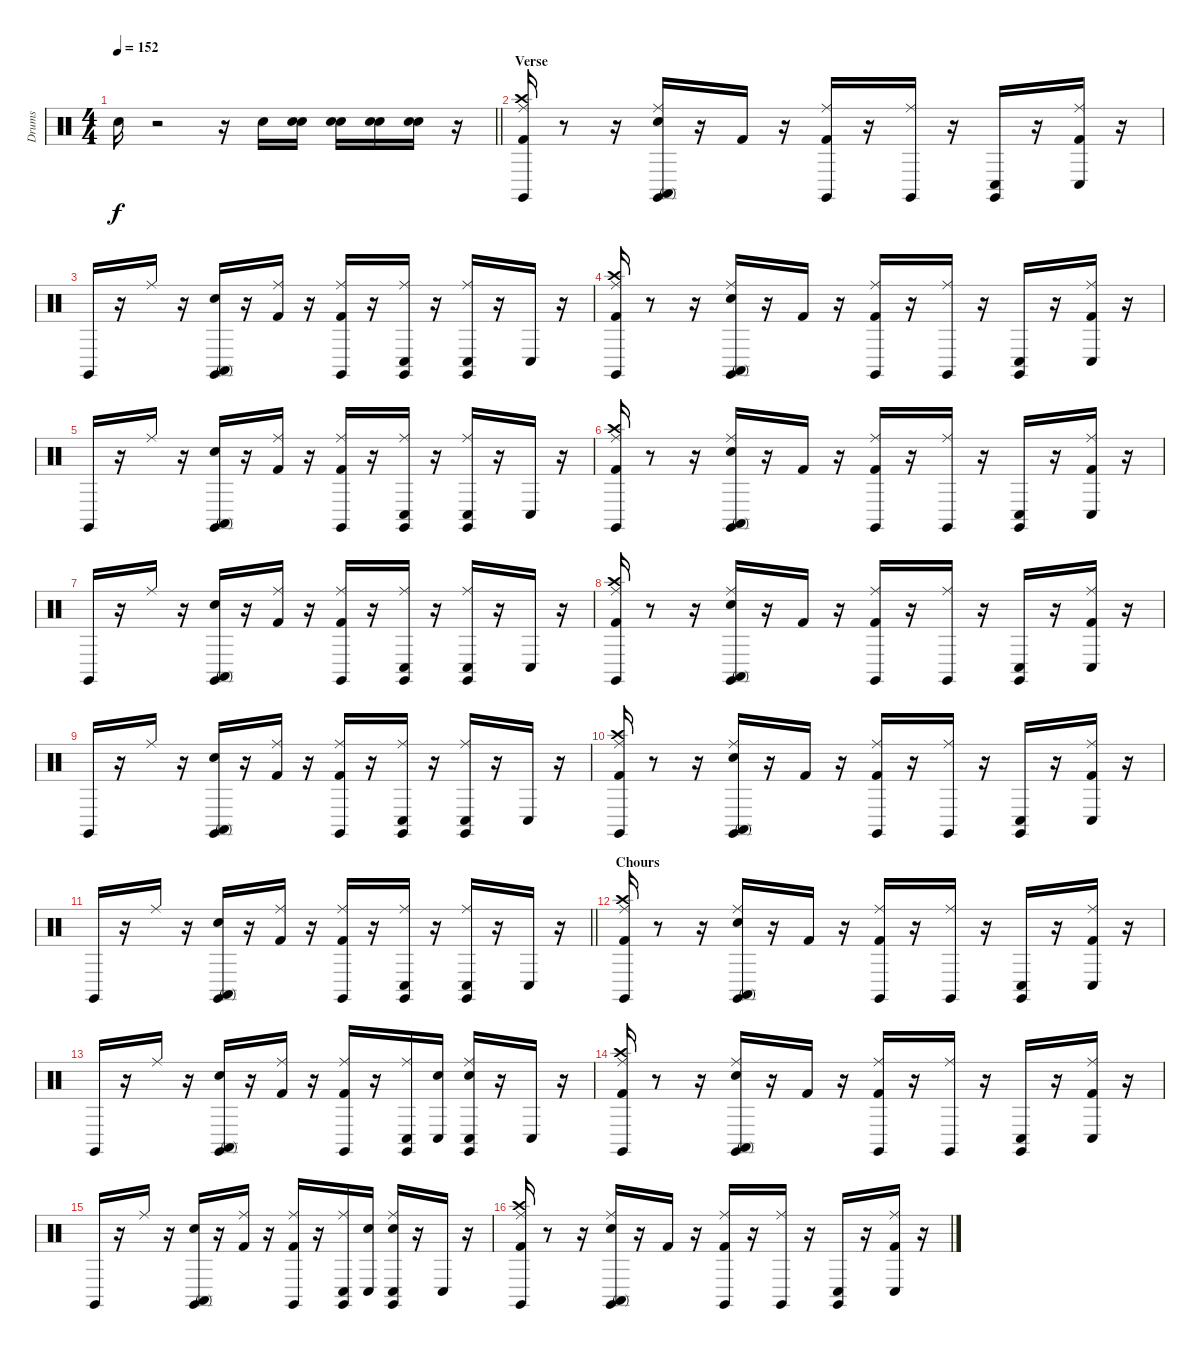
\track ("Drums" "Drums") {instrument percussion}
\staff {score}
\articulation defaults
\ts (4 4)
\tempo 152
\clef neutral
\barLineRight lightlight
\ks c "Snare (hit) 2".16{dy f volume 13}
r.2 r.16 "Snare (hit) 2".16 ("Snare (hit)" "Snare (hit) 2").16 ("Snare (hit)" "Snare (hit) 2").16 ("Snare (hit)" "Snare (hit) 2").16 ("Snare (hit)" "Snare (hit) 2").16 r.16 |
\section ("" "Verse")
("Kick (hit) 2" "Crash high (hit)" "Ride (middle)" "Claves (hit)").16 r.8 r.16 ("Snare (hit) 2" "Ride (middle)" "Conga high (mute)" "Claves (hit)").16 r.16 "Kick (hit) 2".16 r.16 ("Kick (hit) 2" "Ride (middle)" "Claves (hit)").16 r.16 ("Ride (middle)" "Claves (hit)").16 r.16 ("Conga low (hit)" "Claves (hit)").16 r.16 ("Kick (hit) 2" "Ride (middle)" "Conga low (hit)").16 r.16 |
"Claves (hit)".16 r.16 "Ride (middle)".16 r.16 ("Snare (hit) 2" "Conga high (mute)" "Claves (hit)").16 r.16 ("Kick (hit) 2" "Ride (middle)").16 r.16 ("Kick (hit) 2" "Ride (middle)" "Claves (hit)").16 r.16 ("Ride (middle)" "Conga low (hit)" "Claves (hit)").16 r.16 ("Ride (middle)" "Conga low (hit)" "Claves (hit)").16 r.16 "Conga low (hit)".16 r.16 |
("Kick (hit) 2" "Crash high (hit)" "Ride (middle)" "Claves (hit)").16 r.8 r.16 ("Snare (hit) 2" "Ride (middle)" "Conga high (mute)" "Claves (hit)").16 r.16 "Kick (hit) 2".16 r.16 ("Kick (hit) 2" "Ride (middle)" "Claves (hit)").16 r.16 ("Ride (middle)" "Claves (hit)").16 r.16 ("Conga low (hit)" "Claves (hit)").16 r.16 ("Kick (hit) 2" "Ride (middle)" "Conga low (hit)").16 r.16 |
"Claves (hit)".16 r.16 "Ride (middle)".16 r.16 ("Snare (hit) 2" "Conga high (mute)" "Claves (hit)").16 r.16 ("Kick (hit) 2" "Ride (middle)").16 r.16 ("Kick (hit) 2" "Ride (middle)" "Claves (hit)").16 r.16 ("Ride (middle)" "Conga low (hit)" "Claves (hit)").16 r.16 ("Ride (middle)" "Conga low (hit)" "Claves (hit)").16 r.16 "Conga low (hit)".16 r.16 |
("Kick (hit) 2" "Crash high (hit)" "Ride (middle)" "Claves (hit)").16 r.8 r.16 ("Snare (hit) 2" "Ride (middle)" "Conga high (mute)" "Claves (hit)").16 r.16 "Kick (hit) 2".16 r.16 ("Kick (hit) 2" "Ride (middle)" "Claves (hit)").16 r.16 ("Ride (middle)" "Claves (hit)").16 r.16 ("Conga low (hit)" "Claves (hit)").16 r.16 ("Kick (hit) 2" "Ride (middle)" "Conga low (hit)").16 r.16 |
"Claves (hit)".16 r.16 "Ride (middle)".16 r.16 ("Snare (hit) 2" "Conga high (mute)" "Claves (hit)").16 r.16 ("Kick (hit) 2" "Ride (middle)").16 r.16 ("Kick (hit) 2" "Ride (middle)" "Claves (hit)").16 r.16 ("Ride (middle)" "Conga low (hit)" "Claves (hit)").16 r.16 ("Ride (middle)" "Conga low (hit)" "Claves (hit)").16 r.16 "Conga low (hit)".16 r.16 |
("Kick (hit) 2" "Crash high (hit)" "Ride (middle)" "Claves (hit)").16 r.8 r.16 ("Snare (hit) 2" "Ride (middle)" "Conga high (mute)" "Claves (hit)").16 r.16 "Kick (hit) 2".16 r.16 ("Kick (hit) 2" "Ride (middle)" "Claves (hit)").16 r.16 ("Ride (middle)" "Claves (hit)").16 r.16 ("Conga low (hit)" "Claves (hit)").16 r.16 ("Kick (hit) 2" "Ride (middle)" "Conga low (hit)").16 r.16 |
"Claves (hit)".16 r.16 "Ride (middle)".16 r.16 ("Snare (hit) 2" "Conga high (mute)" "Claves (hit)").16 r.16 ("Kick (hit) 2" "Ride (middle)").16 r.16 ("Kick (hit) 2" "Ride (middle)" "Claves (hit)").16 r.16 ("Ride (middle)" "Conga low (hit)" "Claves (hit)").16 r.16 ("Ride (middle)" "Conga low (hit)" "Claves (hit)").16 r.16 "Conga low (hit)".16 r.16 |
("Kick (hit) 2" "Crash high (hit)" "Ride (middle)" "Claves (hit)").16 r.8 r.16 ("Snare (hit) 2" "Ride (middle)" "Conga high (mute)" "Claves (hit)").16 r.16 "Kick (hit) 2".16 r.16 ("Kick (hit) 2" "Ride (middle)" "Claves (hit)").16 r.16 ("Ride (middle)" "Claves (hit)").16 r.16 ("Conga low (hit)" "Claves (hit)").16 r.16 ("Kick (hit) 2" "Ride (middle)" "Conga low (hit)").16 r.16 |
\barLineRight lightlight "Claves (hit)".16
r.16 "Ride (middle)".16 r.16 ("Snare (hit) 2" "Conga high (mute)" "Claves (hit)").16 r.16 ("Kick (hit) 2" "Ride (middle)").16 r.16 ("Kick (hit) 2" "Ride (middle)" "Claves (hit)").16 r.16 ("Ride (middle)" "Conga low (hit)" "Claves (hit)").16 r.16 ("Ride (middle)" "Conga low (hit)" "Claves (hit)").16 r.16 "Conga low (hit)".16 r.16 |
\section ("" "Chours")
("Kick (hit) 2" "Crash high (hit)" "Ride (middle)" "Claves (hit)").16 r.8 r.16 ("Snare (hit) 2" "Ride (middle)" "Conga high (mute)" "Claves (hit)").16 r.16 "Kick (hit) 2".16 r.16 ("Kick (hit) 2" "Ride (middle)" "Claves (hit)").16 r.16 ("Ride (middle)" "Claves (hit)").16 r.16 ("Conga low (hit)" "Claves (hit)").16 r.16 ("Kick (hit) 2" "Ride (middle)" "Conga low (hit)").16 r.16 |
"Claves (hit)".16 r.16 "Ride (middle)".16 r.16 ("Snare (hit) 2" "Conga high (mute)" "Claves (hit)").16 r.16 ("Kick (hit) 2" "Ride (middle)").16 r.16 ("Kick (hit) 2" "Ride (middle)" "Claves (hit)").16 r.16 ("Ride (middle)" "Conga low (hit)" "Claves (hit)").16 ("Snare (hit)" "Conga low (hit)").16 ("Snare (hit)" "Ride (middle)" "Conga low (hit)" "Claves (hit)").16 r.16 "Conga low (hit)".16 r.16 |
("Kick (hit) 2" "Crash high (hit)" "Ride (middle)" "Claves (hit)").16 r.8 r.16 ("Snare (hit) 2" "Ride (middle)" "Conga high (mute)" "Claves (hit)").16 r.16 "Kick (hit) 2".16 r.16 ("Kick (hit) 2" "Ride (middle)" "Claves (hit)").16 r.16 ("Ride (middle)" "Claves (hit)").16 r.16 ("Conga low (hit)" "Claves (hit)").16 r.16 ("Kick (hit) 2" "Ride (middle)" "Conga low (hit)").16 r.16 |
"Claves (hit)".16 r.16 "Ride (middle)".16 r.16 ("Snare (hit) 2" "Conga high (mute)" "Claves (hit)").16 r.16 ("Kick (hit) 2" "Ride (middle)").16 r.16 ("Kick (hit) 2" "Ride (middle)" "Claves (hit)").16 r.16 ("Ride (middle)" "Conga low (hit)" "Claves (hit)").16 ("Snare (hit)" "Conga low (hit)").16 ("Snare (hit)" "Ride (middle)" "Conga low (hit)" "Claves (hit)").16 r.16 "Conga low (hit)".16 r.16 |
("Kick (hit) 2" "Crash high (hit)" "Ride (middle)" "Claves (hit)").16 r.8 r.16 ("Snare (hit) 2" "Ride (middle)" "Conga high (mute)" "Claves (hit)").16 r.16 "Kick (hit) 2".16 r.16 ("Kick (hit) 2" "Ride (middle)" "Claves (hit)").16 r.16 ("Ride (middle)" "Claves (hit)").16 r.16 ("Conga low (hit)" "Claves (hit)").16 r.16 ("Kick (hit) 2" "Ride (middle)" "Conga low (hit)").16 r.16
